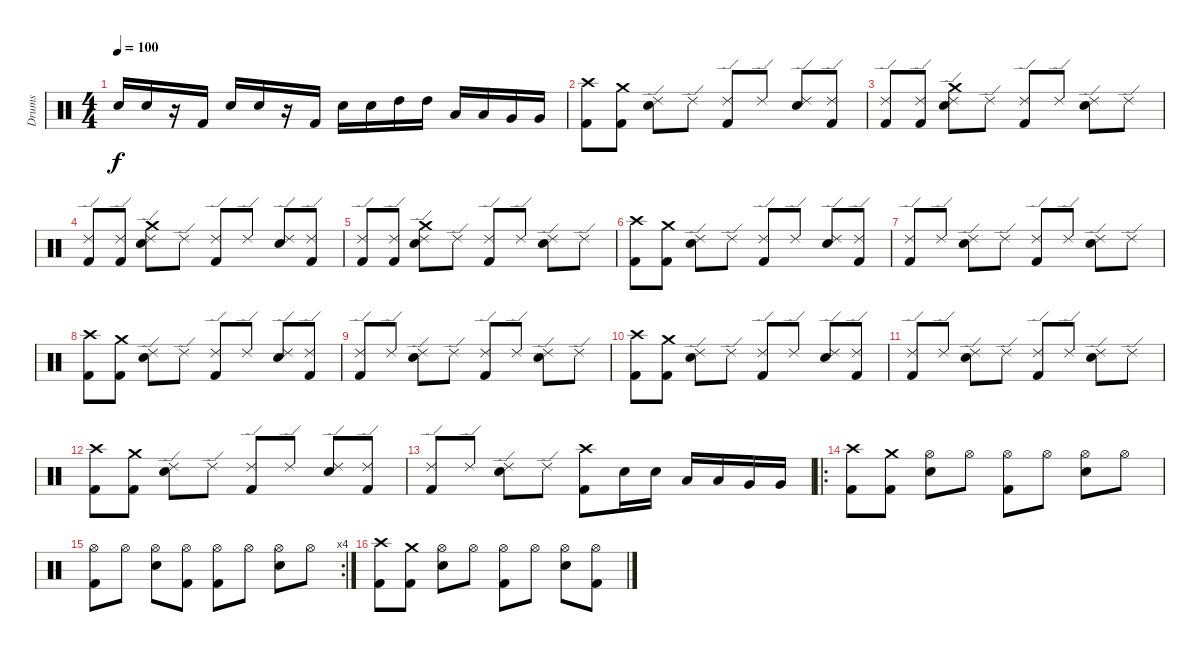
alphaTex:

\track ("Drums" "Drums") {instrument percussion}
\staff {score}
\articulation defaults
\ts (4 4)
\tempo 100
\clef neutral
\ks c "Snare (hit) 2".16{dy f} "Snare (hit) 2".16
r.16 "Kick (hit) 2".16 "Snare (hit) 2".16 "Snare (hit) 2".16 r.16 "Kick (hit) 2".16 "Snare (hit) 2".16 "Snare (hit) 2".16 "High Tom (hit)".16 "High Tom (hit)".16 "Low Tom (hit)".16 "Low Tom (hit)".16 "Very Low Tom (hit)".16 "Very Low Tom (hit)".16 |
("Crash high (hit)" "Kick (hit) 2").8 ("Crash medium (hit)" "Kick (hit) 2").8 ("Ride (edge) 2" "Snare (hit) 2").8 "Ride (edge) 2".8 ("Ride (edge) 2" "Kick (hit) 2").8 "Ride (edge) 2".8 ("Ride (edge) 2" "Snare (hit) 2").8 ("Ride (edge) 2" "Kick (hit) 2").8 |
("Ride (edge) 2" "Kick (hit) 2").8 ("Ride (edge) 2" "Kick (hit) 2").8 ("Crash medium (hit)" "Ride (edge) 2" "Snare (hit) 2").8 "Ride (edge) 2".8 ("Ride (edge) 2" "Kick (hit) 2").8 "Ride (edge) 2".8 ("Ride (edge) 2" "Snare (hit) 2").8 "Ride (edge) 2".8 |
("Ride (edge) 2" "Kick (hit) 2").8 ("Ride (edge) 2" "Kick (hit) 2").8 ("Crash medium (hit)" "Ride (edge) 2" "Snare (hit) 2").8 "Ride (edge) 2".8 ("Ride (edge) 2" "Kick (hit) 2").8 "Ride (edge) 2".8 ("Ride (edge) 2" "Snare (hit) 2").8 ("Ride (edge) 2" "Kick (hit) 2").8 |
("Ride (edge) 2" "Kick (hit) 2").8 ("Ride (edge) 2" "Kick (hit) 2").8 ("Crash medium (hit)" "Ride (edge) 2" "Snare (hit) 2").8 "Ride (edge) 2".8 ("Ride (edge) 2" "Kick (hit) 2").8 "Ride (edge) 2".8 ("Ride (edge) 2" "Snare (hit) 2").8 "Ride (edge) 2".8 |
("Crash high (hit)" "Kick (hit) 2").8 ("Crash medium (hit)" "Kick (hit) 2").8 ("Ride (edge) 2" "Snare (hit) 2").8 "Ride (edge) 2".8 ("Ride (edge) 2" "Kick (hit) 2").8 "Ride (edge) 2".8 ("Ride (edge) 2" "Snare (hit) 2").8 ("Ride (edge) 2" "Kick (hit) 2").8 |
("Ride (edge) 2" "Kick (hit) 2").8 "Ride (edge) 2".8 ("Ride (edge) 2" "Snare (hit) 2").8 "Ride (edge) 2".8 ("Ride (edge) 2" "Kick (hit) 2").8 "Ride (edge) 2".8 ("Ride (edge) 2" "Snare (hit) 2").8 "Ride (edge) 2".8 |
("Crash high (hit)" "Kick (hit) 2").8 ("Crash medium (hit)" "Kick (hit) 2").8 ("Ride (edge) 2" "Snare (hit) 2").8 "Ride (edge) 2".8 ("Ride (edge) 2" "Kick (hit) 2").8 "Ride (edge) 2".8 ("Ride (edge) 2" "Snare (hit) 2").8 ("Ride (edge) 2" "Kick (hit) 2").8 |
("Ride (edge) 2" "Kick (hit) 2").8 "Ride (edge) 2".8 ("Ride (edge) 2" "Snare (hit) 2").8 "Ride (edge) 2".8 ("Ride (edge) 2" "Kick (hit) 2").8 "Ride (edge) 2".8 ("Ride (edge) 2" "Snare (hit) 2").8 "Ride (edge) 2".8 |
("Crash high (hit)" "Kick (hit) 2").8 ("Crash medium (hit)" "Kick (hit) 2").8 ("Ride (edge) 2" "Snare (hit) 2").8 "Ride (edge) 2".8 ("Ride (edge) 2" "Kick (hit) 2").8 "Ride (edge) 2".8 ("Ride (edge) 2" "Snare (hit) 2").8 ("Ride (edge) 2" "Kick (hit) 2").8 |
("Ride (edge) 2" "Kick (hit) 2").8 "Ride (edge) 2".8 ("Ride (edge) 2" "Snare (hit) 2").8 "Ride (edge) 2".8 ("Ride (edge) 2" "Kick (hit) 2").8 "Ride (edge) 2".8 ("Ride (edge) 2" "Snare (hit) 2").8 "Ride (edge) 2".8 |
("Crash high (hit)" "Kick (hit) 2").8 ("Crash medium (hit)" "Kick (hit) 2").8 ("Ride (edge) 2" "Snare (hit) 2").8 "Ride (edge) 2".8 ("Ride (edge) 2" "Kick (hit) 2").8 "Ride (edge) 2".8 ("Ride (edge) 2" "Snare (hit) 2").8 ("Ride (edge) 2" "Kick (hit) 2").8 |
("Ride (edge) 2" "Kick (hit) 2").8 "Ride (edge) 2".8 ("Ride (edge) 2" "Snare (hit) 2").8 "Ride (edge) 2".8 ("Crash high (hit)" "Kick (hit) 2").8 "Snare (hit) 2".16 "Snare (hit) 2".16 "Low Tom (hit)".16 "Low Tom (hit)".16 "Very Low Tom (hit)".16 "Very Low Tom (hit)".16 |
\ro
("Crash high (hit)" "Kick (hit) 2").8 ("Crash medium (hit)" "Kick (hit) 2").8 ("Hi-Hat (open)" "Snare (hit) 2").8 "Hi-Hat (open)".8 ("Hi-Hat (open)" "Kick (hit) 2").8 "Hi-Hat (open)".8 ("Hi-Hat (open)" "Snare (hit) 2").8 "Hi-Hat (open)".8 |
\rc 4
("Hi-Hat (open)" "Kick (hit) 2").8 "Hi-Hat (open)".8 ("Hi-Hat (open)" "Snare (hit) 2").8 ("Hi-Hat (open)" "Kick (hit) 2").8 ("Hi-Hat (open)" "Kick (hit) 2").8 "Hi-Hat (open)".8 ("Hi-Hat (open)" "Snare (hit) 2").8 "Hi-Hat (open)".8 |
("Crash high (hit)" "Kick (hit) 2").8 ("Crash medium (hit)" "Kick (hit) 2").8 ("Hi-Hat (open)" "Snare (hit) 2").8 "Hi-Hat (open)".8 ("Hi-Hat (open)" "Kick (hit) 2").8 "Hi-Hat (open)".8 ("Hi-Hat (open)" "Snare (hit) 2").8 ("Hi-Hat (open)" "Kick (hit) 2").8
